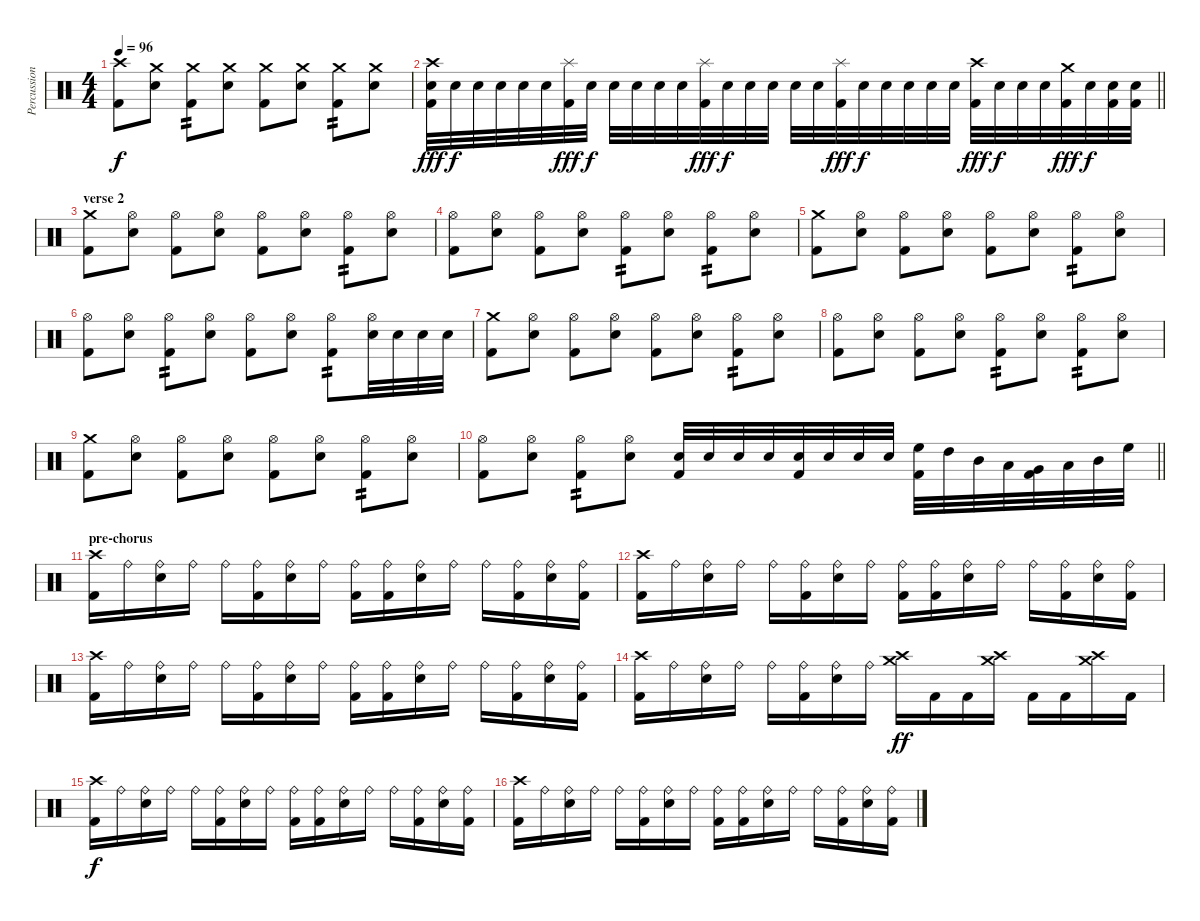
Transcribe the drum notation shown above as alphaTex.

\track ("Percussion" "Percussion") {instrument percussion}
\staff {score}
\articulation defaults
\ts (4 4)
\tempo 96
\clef neutral
\ks c
("Crash high (hit)" "Kick (hit) 2").8{dy f} ("Crash medium (hit)" "Electric Snare (hit)").8 ("Crash medium (hit)" "Kick (hit) 2").8{tp 2} ("Crash medium (hit)" "Electric Snare (hit)").8 ("Crash medium (hit)" "Kick (hit) 2").8 ("Crash medium (hit)" "Electric Snare (hit)").8 ("Crash medium (hit)" "Kick (hit) 2").8{tp 2} ("Crash medium (hit)" "Electric Snare (hit)").8 |
\barLineRight lightlight
("Crash high (hit)" "Electric Snare (hit)" "Kick (hit) 2").32{dy fff} "Electric Snare (hit)".32{dy f} "Electric Snare (hit)".32 "Electric Snare (hit)".32 "Electric Snare (hit)".32 "Electric Snare (hit)".32 ("Splash (hit)" "Kick (hit) 2").32{dy fff} "Electric Snare (hit)".32{dy f} "Electric Snare (hit)".32 "Electric Snare (hit)".32 "Electric Snare (hit)".32 "Electric Snare (hit)".32 ("Splash (hit)" "Kick (hit) 2").32{dy fff} "Electric Snare (hit)".32{dy f} "Electric Snare (hit)".32 "Electric Snare (hit)".32 "Electric Snare (hit)".32 "Electric Snare (hit)".32 ("Splash (hit)" "Kick (hit) 2").32{dy fff} "Electric Snare (hit)".32{dy f} "Electric Snare (hit)".32 "Electric Snare (hit)".32 "Electric Snare (hit)".32 "Electric Snare (hit)".32 ("Crash high (hit)" "Kick (hit) 2").32{dy fff} "Electric Snare (hit)".32{dy f} "Electric Snare (hit)".32 "Electric Snare (hit)".32 ("Crash medium (hit)" "Kick (hit) 2").32{dy fff} "Electric Snare (hit)".32{dy f} ("Electric Snare (hit)" "Kick (hit) 2").32 ("Electric Snare (hit)" "Kick (hit) 2").32 |
\section ("" "verse 2")
("Crash medium (hit)" "Kick (hit) 2").8 ("Hi-Hat (open)" "Electric Snare (hit)").8 ("Hi-Hat (open)" "Kick (hit) 2").8 ("Hi-Hat (open)" "Electric Snare (hit)").8 ("Hi-Hat (open)" "Kick (hit) 2").8 ("Hi-Hat (open)" "Electric Snare (hit)").8 ("Hi-Hat (open)" "Kick (hit) 2").8{tp 2} ("Hi-Hat (open)" "Electric Snare (hit)").8 |
("Hi-Hat (open)" "Kick (hit) 2").8 ("Hi-Hat (open)" "Electric Snare (hit)").8 ("Hi-Hat (open)" "Kick (hit) 2").8 ("Hi-Hat (open)" "Electric Snare (hit)").8 ("Hi-Hat (open)" "Kick (hit) 2").8{tp 2} ("Hi-Hat (open)" "Electric Snare (hit)").8 ("Hi-Hat (open)" "Kick (hit) 2").8{tp 2} ("Hi-Hat (open)" "Electric Snare (hit)").8 |
("Crash medium (hit)" "Kick (hit) 2").8 ("Hi-Hat (open)" "Electric Snare (hit)").8 ("Hi-Hat (open)" "Kick (hit) 2").8 ("Hi-Hat (open)" "Electric Snare (hit)").8 ("Hi-Hat (open)" "Kick (hit) 2").8 ("Hi-Hat (open)" "Electric Snare (hit)").8 ("Hi-Hat (open)" "Kick (hit) 2").8{tp 2} ("Hi-Hat (open)" "Electric Snare (hit)").8 |
("Hi-Hat (open)" "Kick (hit) 2").8 ("Hi-Hat (open)" "Electric Snare (hit)").8 ("Hi-Hat (open)" "Kick (hit) 2").8{tp 2} ("Hi-Hat (open)" "Electric Snare (hit)").8 ("Hi-Hat (open)" "Kick (hit) 2").8 ("Hi-Hat (open)" "Electric Snare (hit)").8 ("Hi-Hat (open)" "Kick (hit) 2").8{tp 2} ("Hi-Hat (open)" "Electric Snare (hit)").32 "Electric Snare (hit)".32 "Electric Snare (hit)".32 "Electric Snare (hit)".32 |
("Crash medium (hit)" "Kick (hit) 2").8 ("Hi-Hat (open)" "Electric Snare (hit)").8 ("Hi-Hat (open)" "Kick (hit) 2").8 ("Hi-Hat (open)" "Electric Snare (hit)").8 ("Hi-Hat (open)" "Kick (hit) 2").8 ("Hi-Hat (open)" "Electric Snare (hit)").8 ("Hi-Hat (open)" "Kick (hit) 2").8{tp 2} ("Hi-Hat (open)" "Electric Snare (hit)").8 |
("Hi-Hat (open)" "Kick (hit) 2").8 ("Hi-Hat (open)" "Electric Snare (hit)").8 ("Hi-Hat (open)" "Kick (hit) 2").8 ("Hi-Hat (open)" "Electric Snare (hit)").8 ("Hi-Hat (open)" "Kick (hit) 2").8{tp 2} ("Hi-Hat (open)" "Electric Snare (hit)").8 ("Hi-Hat (open)" "Kick (hit) 2").8{tp 2} ("Hi-Hat (open)" "Electric Snare (hit)").8 |
("Crash medium (hit)" "Kick (hit) 2").8 ("Hi-Hat (open)" "Electric Snare (hit)").8 ("Hi-Hat (open)" "Kick (hit) 2").8 ("Hi-Hat (open)" "Electric Snare (hit)").8 ("Hi-Hat (open)" "Kick (hit) 2").8 ("Hi-Hat (open)" "Electric Snare (hit)").8 ("Hi-Hat (open)" "Kick (hit) 2").8{tp 2} ("Hi-Hat (open)" "Electric Snare (hit)").8 |
\barLineRight lightlight
("Hi-Hat (open)" "Kick (hit) 2").8 ("Hi-Hat (open)" "Electric Snare (hit)").8 ("Hi-Hat (open)" "Kick (hit) 2").8{tp 2} ("Hi-Hat (open)" "Electric Snare (hit)").8 ("Electric Snare (hit)" "Kick (hit) 2").32 "Electric Snare (hit)".32 "Electric Snare (hit)".32 "Electric Snare (hit)".32 ("Electric Snare (hit)" "Kick (hit) 2").32 "Electric Snare (hit)".32 "Electric Snare (hit)".32 "Electric Snare (hit)".32 ("High Floor Tom (hit)" "Kick (hit) 2").32 "High Tom (hit)".32 "Mid Tom (hit)".32 "Low Tom (hit)".32 ("Very Low Tom (hit)" "Kick (hit) 2").32 "Low Tom (hit)".32 "Mid Tom (hit)".32 "High Floor Tom (hit)".32 |
\section ("" "pre-chorus")
("Crash high (hit)" "Kick (hit) 2").16 "Ride (bell)".16 ("Ride (bell)" "Electric Snare (hit)").16 "Ride (bell)".16 "Ride (bell)".16 ("Ride (bell)" "Kick (hit) 2").16 ("Ride (bell)" "Electric Snare (hit)").16 "Ride (bell)".16 ("Ride (bell)" "Kick (hit) 2").16 ("Ride (bell)" "Kick (hit) 2").16 ("Ride (bell)" "Electric Snare (hit)").16 "Ride (bell)".16 "Ride (bell)".16 ("Ride (bell)" "Kick (hit) 2").16 ("Ride (bell)" "Electric Snare (hit)").16 ("Ride (bell)" "Kick (hit) 2").16 |
("Crash high (hit)" "Kick (hit) 2").16 "Ride (bell)".16 ("Ride (bell)" "Electric Snare (hit)").16 "Ride (bell)".16 "Ride (bell)".16 ("Ride (bell)" "Kick (hit) 2").16 ("Ride (bell)" "Electric Snare (hit)").16 "Ride (bell)".16 ("Ride (bell)" "Kick (hit) 2").16 ("Ride (bell)" "Kick (hit) 2").16 ("Ride (bell)" "Electric Snare (hit)").16 "Ride (bell)".16 "Ride (bell)".16 ("Ride (bell)" "Kick (hit) 2").16 ("Ride (bell)" "Electric Snare (hit)").16 ("Ride (bell)" "Kick (hit) 2").16 |
("Crash high (hit)" "Kick (hit) 2").16 "Ride (bell)".16 ("Ride (bell)" "Electric Snare (hit)").16 "Ride (bell)".16 "Ride (bell)".16 ("Ride (bell)" "Kick (hit) 2").16 ("Ride (bell)" "Electric Snare (hit)").16 "Ride (bell)".16 ("Ride (bell)" "Kick (hit) 2").16 ("Ride (bell)" "Kick (hit) 2").16 ("Ride (bell)" "Electric Snare (hit)").16 "Ride (bell)".16 "Ride (bell)".16 ("Ride (bell)" "Kick (hit) 2").16 ("Ride (bell)" "Electric Snare (hit)").16 ("Ride (bell)" "Kick (hit) 2").16 |
("Crash high (hit)" "Kick (hit) 2").16 "Ride (bell)".16 ("Ride (bell)" "Electric Snare (hit)").16 "Ride (bell)".16 "Ride (bell)".16 ("Ride (bell)" "Kick (hit) 2").16 ("Ride (bell)" "Electric Snare (hit)").16 "Ride (bell)".16 ("Crash high (hit)" "Crash medium (hit)").16{dy ff} "Kick (hit) 2".16 "Kick (hit) 2".16 ("Crash high (hit)" "Crash medium (hit)").16 "Kick (hit) 2".16 "Kick (hit) 2".16 ("Crash high (hit)" "Crash medium (hit)").16 "Kick (hit) 2".16 |
("Crash high (hit)" "Kick (hit) 2").16{dy f} "Ride (bell)".16 ("Ride (bell)" "Electric Snare (hit)").16 "Ride (bell)".16 "Ride (bell)".16 ("Ride (bell)" "Kick (hit) 2").16 ("Ride (bell)" "Electric Snare (hit)").16 "Ride (bell)".16 ("Ride (bell)" "Kick (hit) 2").16 ("Ride (bell)" "Kick (hit) 2").16 ("Ride (bell)" "Electric Snare (hit)").16 "Ride (bell)".16 "Ride (bell)".16 ("Ride (bell)" "Kick (hit) 2").16 ("Ride (bell)" "Electric Snare (hit)").16 ("Ride (bell)" "Kick (hit) 2").16 |
("Crash high (hit)" "Kick (hit) 2").16 "Ride (bell)".16 ("Ride (bell)" "Electric Snare (hit)").16 "Ride (bell)".16 "Ride (bell)".16 ("Ride (bell)" "Kick (hit) 2").16 ("Ride (bell)" "Electric Snare (hit)").16 "Ride (bell)".16 ("Ride (bell)" "Kick (hit) 2").16 ("Ride (bell)" "Kick (hit) 2").16 ("Ride (bell)" "Electric Snare (hit)").16 "Ride (bell)".16 "Ride (bell)".16 ("Ride (bell)" "Kick (hit) 2").16 ("Ride (bell)" "Electric Snare (hit)").16 ("Ride (bell)" "Kick (hit) 2").16
